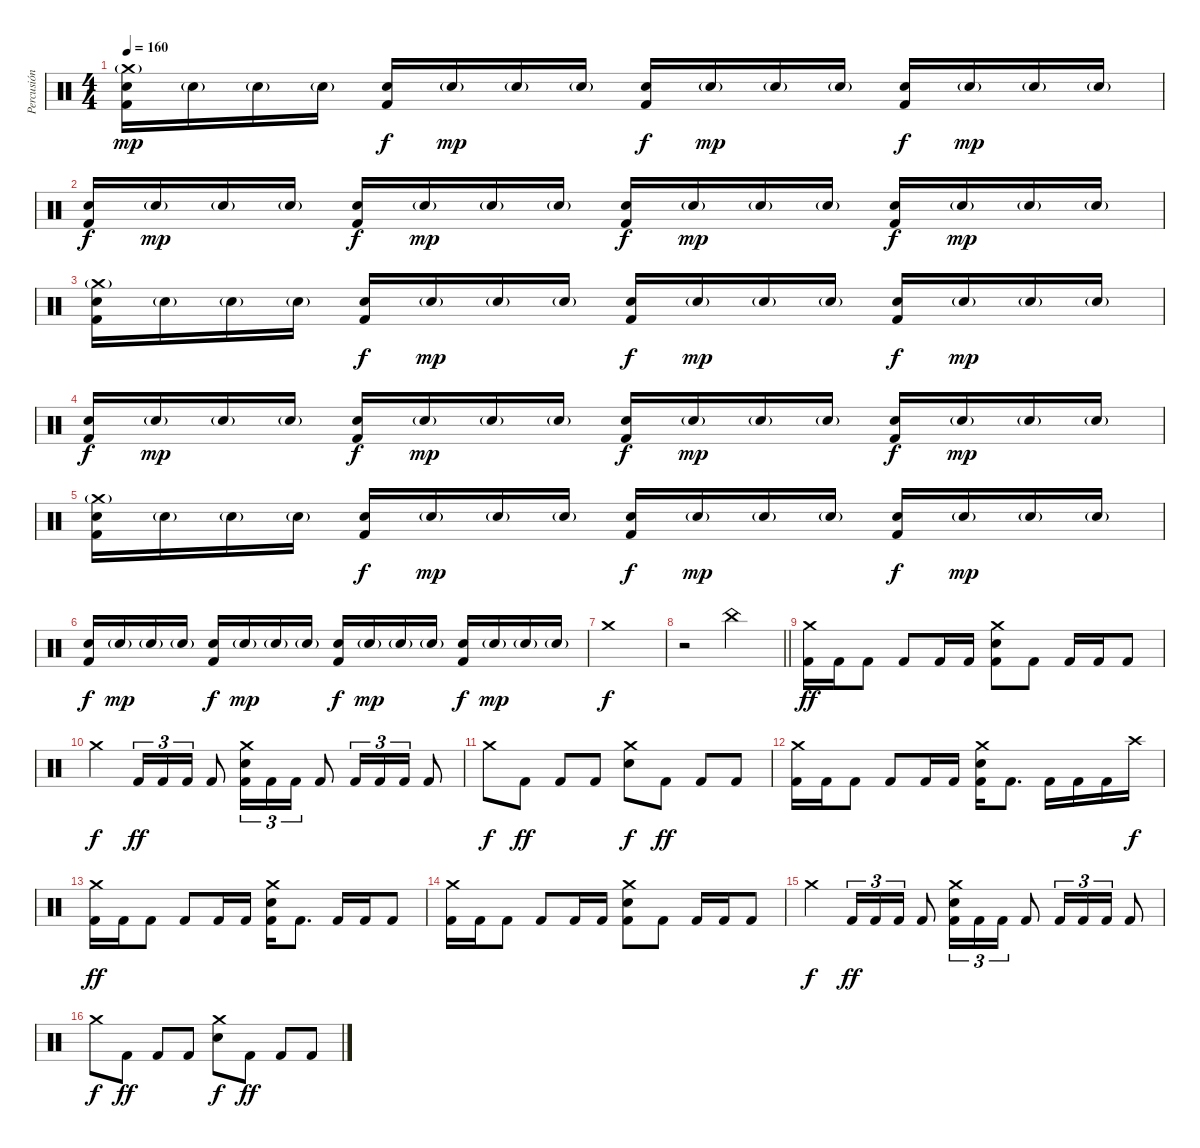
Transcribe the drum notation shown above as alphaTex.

\track ("Percusión" "Percusión") {instrument percussion}
\staff {score}
\articulation defaults
\ts (4 4)
\tempo 160
\clef neutral
\ks c
("Crash medium (hit)"{g} "Snare (hit) 2" "Kick (hit) 2").16{dy mp} "Snare (hit) 2"{g}.16 "Snare (hit) 2"{g}.16 "Snare (hit) 2"{g}.16 ("Snare (hit) 2" "Kick (hit) 2").16{dy f} "Snare (hit) 2"{g}.16{dy mp} "Snare (hit) 2"{g}.16 "Snare (hit) 2"{g}.16 ("Snare (hit) 2" "Kick (hit) 2").16{dy f} "Snare (hit) 2"{g}.16{dy mp} "Snare (hit) 2"{g}.16 "Snare (hit) 2"{g}.16 ("Snare (hit) 2" "Kick (hit) 2").16{dy f} "Snare (hit) 2"{g}.16{dy mp} "Snare (hit) 2"{g}.16 "Snare (hit) 2"{g}.16 |
("Snare (hit) 2" "Kick (hit) 2").16{dy f} "Snare (hit) 2"{g}.16{dy mp} "Snare (hit) 2"{g}.16 "Snare (hit) 2"{g}.16 ("Snare (hit) 2" "Kick (hit) 2").16{dy f} "Snare (hit) 2"{g}.16{dy mp} "Snare (hit) 2"{g}.16 "Snare (hit) 2"{g}.16 ("Snare (hit) 2" "Kick (hit) 2").16{dy f} "Snare (hit) 2"{g}.16{dy mp} "Snare (hit) 2"{g}.16 "Snare (hit) 2"{g}.16 ("Snare (hit) 2" "Kick (hit) 2").16{dy f} "Snare (hit) 2"{g}.16{dy mp} "Snare (hit) 2"{g}.16 "Snare (hit) 2"{g}.16 |
("Crash medium (hit)"{g} "Snare (hit) 2" "Kick (hit) 2").16 "Snare (hit) 2"{g}.16 "Snare (hit) 2"{g}.16 "Snare (hit) 2"{g}.16 ("Snare (hit) 2" "Kick (hit) 2").16{dy f} "Snare (hit) 2"{g}.16{dy mp} "Snare (hit) 2"{g}.16 "Snare (hit) 2"{g}.16 ("Snare (hit) 2" "Kick (hit) 2").16{dy f} "Snare (hit) 2"{g}.16{dy mp} "Snare (hit) 2"{g}.16 "Snare (hit) 2"{g}.16 ("Snare (hit) 2" "Kick (hit) 2").16{dy f} "Snare (hit) 2"{g}.16{dy mp} "Snare (hit) 2"{g}.16 "Snare (hit) 2"{g}.16 |
("Snare (hit) 2" "Kick (hit) 2").16{dy f} "Snare (hit) 2"{g}.16{dy mp} "Snare (hit) 2"{g}.16 "Snare (hit) 2"{g}.16 ("Snare (hit) 2" "Kick (hit) 2").16{dy f} "Snare (hit) 2"{g}.16{dy mp} "Snare (hit) 2"{g}.16 "Snare (hit) 2"{g}.16 ("Snare (hit) 2" "Kick (hit) 2").16{dy f} "Snare (hit) 2"{g}.16{dy mp} "Snare (hit) 2"{g}.16 "Snare (hit) 2"{g}.16 ("Snare (hit) 2" "Kick (hit) 2").16{dy f} "Snare (hit) 2"{g}.16{dy mp} "Snare (hit) 2"{g}.16 "Snare (hit) 2"{g}.16 |
("Crash medium (hit)"{g} "Snare (hit) 2" "Kick (hit) 2").16{volume 16} "Snare (hit) 2"{g}.16 "Snare (hit) 2"{g}.16 "Snare (hit) 2"{g}.16 ("Snare (hit) 2" "Kick (hit) 2").16{dy f} "Snare (hit) 2"{g}.16{dy mp} "Snare (hit) 2"{g}.16 "Snare (hit) 2"{g}.16 ("Snare (hit) 2" "Kick (hit) 2").16{dy f} "Snare (hit) 2"{g}.16{dy mp} "Snare (hit) 2"{g}.16 "Snare (hit) 2"{g}.16 ("Snare (hit) 2" "Kick (hit) 2").16{dy f} "Snare (hit) 2"{g}.16{dy mp} "Snare (hit) 2"{g}.16 "Snare (hit) 2"{g}.16 |
("Snare (hit) 2" "Kick (hit) 2").16{dy f} "Snare (hit) 2"{g}.16{dy mp} "Snare (hit) 2"{g}.16 "Snare (hit) 2"{g}.16 ("Snare (hit) 2" "Kick (hit) 2").16{dy f} "Snare (hit) 2"{g}.16{dy mp} "Snare (hit) 2"{g}.16 "Snare (hit) 2"{g}.16 ("Snare (hit) 2" "Kick (hit) 2").16{dy f} "Snare (hit) 2"{g}.16{dy mp} "Snare (hit) 2"{g}.16 "Snare (hit) 2"{g}.16 ("Snare (hit) 2" "Kick (hit) 2").16{dy f} "Snare (hit) 2"{g}.16{dy mp} "Snare (hit) 2"{g}.16 "Snare (hit) 2"{g}.16 |
"Crash medium (hit)".1{dy f} |
\barLineRight lightlight
r.2 "China (hit)".2 |
("Crash medium (hit)" "Kick (hit) 2").16{dy ff volume 16 balance 15} "Kick (hit) 2".16 "Kick (hit) 2".8 "Kick (hit) 2".8 "Kick (hit) 2".16 "Kick (hit) 2".16 ("Crash medium (hit)" "Snare (hit) 2" "Kick (hit) 2").8 "Kick (hit) 2".8 "Kick (hit) 2".16 "Kick (hit) 2".16 "Kick (hit) 2".8 |
"Crash medium (hit)".4{dy f} "Kick (hit) 2".16{tu (3 2) dy ff} "Kick (hit) 2".16{tu (3 2)} "Kick (hit) 2".16{tu (3 2)} "Kick (hit) 2".8 ("Crash medium (hit)" "Snare (hit) 2" "Kick (hit) 2").16{tu (3 2)} "Kick (hit) 2".16{tu (3 2)} "Kick (hit) 2".16{tu (3 2)} "Kick (hit) 2".8 "Kick (hit) 2".16{tu (3 2)} "Kick (hit) 2".16{tu (3 2)} "Kick (hit) 2".16{tu (3 2)} "Kick (hit) 2".8 |
"Crash medium (hit)".8{dy f} "Kick (hit) 2".8{dy ff} "Kick (hit) 2".8 "Kick (hit) 2".8 ("Crash medium (hit)" "Snare (hit) 2").8{dy f} "Kick (hit) 2".8{dy ff} "Kick (hit) 2".8 "Kick (hit) 2".8 |
("Crash medium (hit)" "Kick (hit) 2").16 "Kick (hit) 2".16 "Kick (hit) 2".8 "Kick (hit) 2".8 "Kick (hit) 2".16 "Kick (hit) 2".16 ("Crash medium (hit)" "Snare (hit) 2" "Kick (hit) 2").16 "Kick (hit) 2".8{d} "Kick (hit) 2".16 "Kick (hit) 2".16 "Kick (hit) 2".16 "Crash high (hit)".16{dy f} |
("Crash medium (hit)" "Kick (hit) 2").16{dy ff} "Kick (hit) 2".16 "Kick (hit) 2".8 "Kick (hit) 2".8 "Kick (hit) 2".16 "Kick (hit) 2".16 ("Crash medium (hit)" "Snare (hit) 2" "Kick (hit) 2").16 "Kick (hit) 2".8{d} "Kick (hit) 2".16 "Kick (hit) 2".16 "Kick (hit) 2".8 |
("Crash medium (hit)" "Kick (hit) 2").16 "Kick (hit) 2".16 "Kick (hit) 2".8 "Kick (hit) 2".8 "Kick (hit) 2".16 "Kick (hit) 2".16 ("Crash medium (hit)" "Snare (hit) 2" "Kick (hit) 2").8 "Kick (hit) 2".8 "Kick (hit) 2".16 "Kick (hit) 2".16 "Kick (hit) 2".8 |
"Crash medium (hit)".4{dy f} "Kick (hit) 2".16{tu (3 2) dy ff} "Kick (hit) 2".16{tu (3 2)} "Kick (hit) 2".16{tu (3 2)} "Kick (hit) 2".8 ("Crash medium (hit)" "Snare (hit) 2" "Kick (hit) 2").16{tu (3 2)} "Kick (hit) 2".16{tu (3 2)} "Kick (hit) 2".16{tu (3 2)} "Kick (hit) 2".8 "Kick (hit) 2".16{tu (3 2)} "Kick (hit) 2".16{tu (3 2)} "Kick (hit) 2".16{tu (3 2)} "Kick (hit) 2".8 |
"Crash medium (hit)".8{dy f} "Kick (hit) 2".8{dy ff} "Kick (hit) 2".8 "Kick (hit) 2".8 ("Crash medium (hit)" "Snare (hit) 2").8{dy f} "Kick (hit) 2".8{dy ff} "Kick (hit) 2".8 "Kick (hit) 2".8
